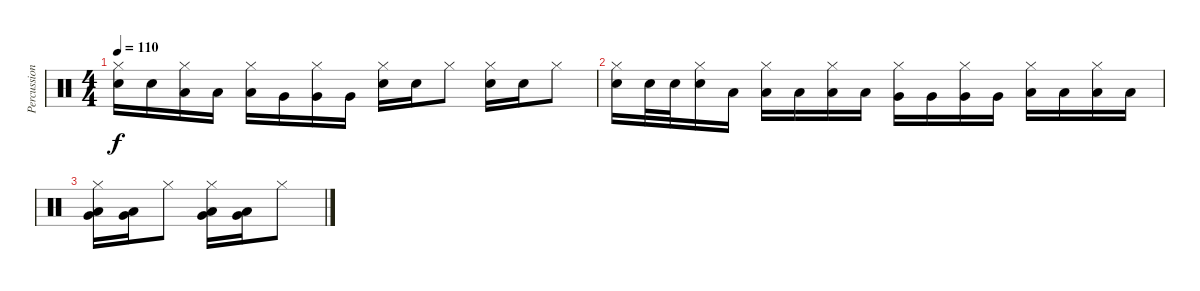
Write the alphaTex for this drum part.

\track ("Percussion" "Percussion") {instrument percussion}
\staff {score}
\articulation defaults
\ts (4 4)
\tempo 110
\clef neutral
\ks c
("Hi-Hat (closed)" "Snare (hit) 2").16{dy f} "Snare (hit) 2".16 ("Hi-Hat (closed)" "Low Tom (hit)").16 "Low Tom (hit)".16 ("Hi-Hat (closed)" "Low Tom (hit)").16 "Very Low Tom (hit)".16 ("Hi-Hat (closed)" "Very Low Tom (hit)").16 "Very Low Tom (hit)".16 ("Hi-Hat (closed)" "Snare (hit) 2").16 "Snare (hit) 2".16 "Hi-Hat (closed)".8 ("Hi-Hat (closed)" "Snare (hit) 2").16 "Snare (hit) 2".16 "Hi-Hat (closed)".8 |
("Hi-Hat (closed)" "Snare (hit) 2").16 "Snare (hit) 2".32 "Snare (hit) 2".32 ("Hi-Hat (closed)" "Snare (hit) 2").16 "Low Tom (hit)".16 ("Hi-Hat (closed)" "Low Tom (hit)").16 "Low Tom (hit)".16 ("Hi-Hat (closed)" "Low Tom (hit)").16 "Low Tom (hit)".16 ("Hi-Hat (closed)" "Very Low Tom (hit)").16 "Very Low Tom (hit)".16 ("Hi-Hat (closed)" "Very Low Tom (hit)").16 "Very Low Tom (hit)".16 ("Hi-Hat (closed)" "Low Floor Tom (hit)").16 "Low Floor Tom (hit)".16 ("Hi-Hat (closed)" "Low Floor Tom (hit)").16 "Low Floor Tom (hit)".16 |
("Hi-Hat (closed)" "Low Floor Tom (hit)" "Very Low Tom (hit)").16 ("Low Floor Tom (hit)" "Very Low Tom (hit)").16 "Hi-Hat (closed)".8 ("Hi-Hat (closed)" "Low Floor Tom (hit)" "Very Low Tom (hit)").16 ("Low Floor Tom (hit)" "Very Low Tom (hit)").16 "Hi-Hat (closed)".8
